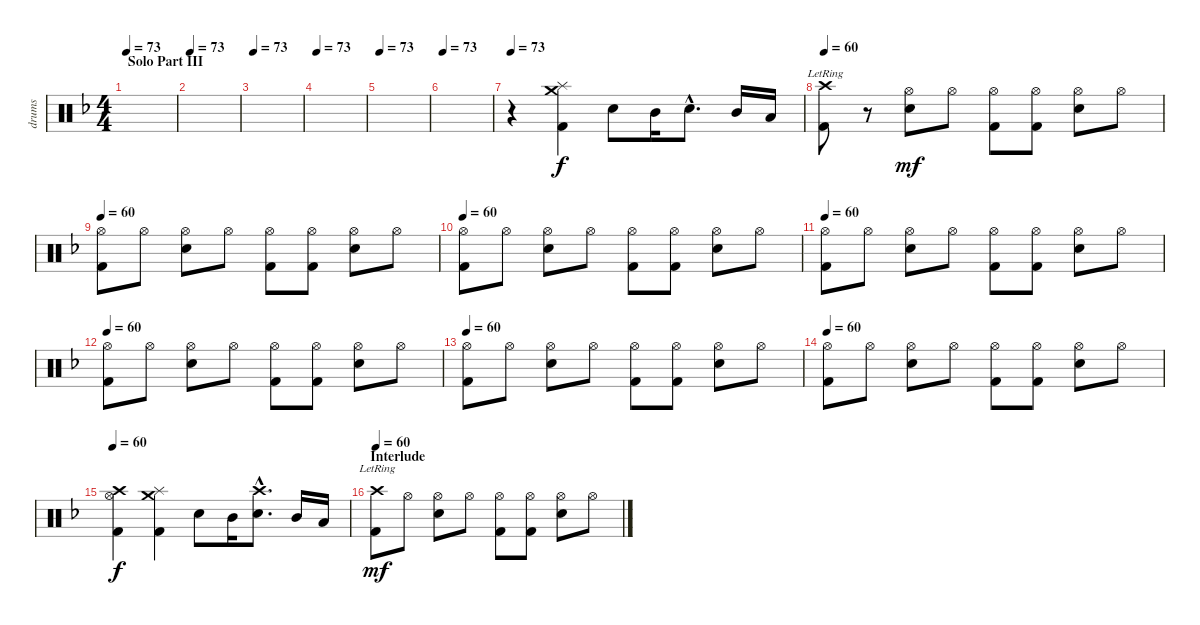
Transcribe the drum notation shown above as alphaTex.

\track ("drums" "drums") {instrument percussion}
\staff {score}
\articulation defaults
\ts (4 4)
\section ("" "Solo Part III")
\tempo 73
\clef neutral
\ks dminor
|
\tempo 73
|
\tempo 73
|
\tempo 73
|
\tempo 73
|
\tempo 73
|
\tempo 73
r.4 ("Splash (hit)" "Crash medium (hit)" "Kick (hit) 2").4 "Electric Snare (hit)".8 "Mid Tom (hit)".16 "Electric Snare (hit)"{hac}.8{d} "Mid Tom (hit)".16 "Low Tom (hit)".16 |
\tempo 60
("Crash high (hit)"{lr} "Kick (hit) 2").8 r.8 ("Hi-Hat (open)" "Electric Snare (hit)").8{dy mf} "Hi-Hat (open)".8 ("Hi-Hat (open)" "Kick (hit) 2").8 ("Hi-Hat (open)" "Kick (hit) 2").8 ("Hi-Hat (open)" "Electric Snare (hit)").8 "Hi-Hat (open)".8 |
\tempo 60
("Hi-Hat (open)" "Kick (hit) 2").8 "Hi-Hat (open)".8 ("Hi-Hat (open)" "Electric Snare (hit)").8 "Hi-Hat (open)".8 ("Hi-Hat (open)" "Kick (hit) 2").8 ("Hi-Hat (open)" "Kick (hit) 2").8 ("Hi-Hat (open)" "Electric Snare (hit)").8 "Hi-Hat (open)".8 |
\tempo 60
("Hi-Hat (open)" "Kick (hit) 2").8 "Hi-Hat (open)".8 ("Hi-Hat (open)" "Electric Snare (hit)").8 "Hi-Hat (open)".8 ("Hi-Hat (open)" "Kick (hit) 2").8 ("Hi-Hat (open)" "Kick (hit) 2").8 ("Hi-Hat (open)" "Electric Snare (hit)").8 "Hi-Hat (open)".8 |
\tempo 60
("Hi-Hat (open)" "Kick (hit) 2").8 "Hi-Hat (open)".8 ("Hi-Hat (open)" "Electric Snare (hit)").8 "Hi-Hat (open)".8 ("Hi-Hat (open)" "Kick (hit) 2").8 ("Hi-Hat (open)" "Kick (hit) 2").8 ("Hi-Hat (open)" "Electric Snare (hit)").8 "Hi-Hat (open)".8 |
\tempo 60
("Hi-Hat (open)" "Kick (hit) 2").8 "Hi-Hat (open)".8 ("Hi-Hat (open)" "Electric Snare (hit)").8 "Hi-Hat (open)".8 ("Hi-Hat (open)" "Kick (hit) 2").8 ("Hi-Hat (open)" "Kick (hit) 2").8 ("Hi-Hat (open)" "Electric Snare (hit)").8 "Hi-Hat (open)".8 |
\tempo 60
("Hi-Hat (open)" "Kick (hit) 2").8 "Hi-Hat (open)".8 ("Hi-Hat (open)" "Electric Snare (hit)").8 "Hi-Hat (open)".8 ("Hi-Hat (open)" "Kick (hit) 2").8 ("Hi-Hat (open)" "Kick (hit) 2").8 ("Hi-Hat (open)" "Electric Snare (hit)").8 "Hi-Hat (open)".8 |
\tempo 60
("Hi-Hat (open)" "Kick (hit) 2").8 "Hi-Hat (open)".8 ("Hi-Hat (open)" "Electric Snare (hit)").8 "Hi-Hat (open)".8 ("Hi-Hat (open)" "Kick (hit) 2").8 ("Hi-Hat (open)" "Kick (hit) 2").8 ("Hi-Hat (open)" "Electric Snare (hit)").8 "Hi-Hat (open)".8 |
\tempo 60
("Hi-Hat (open)" "Crash high (hit)" "Kick (hit) 2").4{dy f} ("Splash (hit)" "Crash medium (hit)" "Kick (hit) 2").4 "Electric Snare (hit)".8 "Mid Tom (hit)".16 ("Crash high (hit)"{hac} "Electric Snare (hit)"{hac}).8{d} "Mid Tom (hit)".16 "Low Tom (hit)".16 |
\section ("" "Interlude")
\tempo 60
("Crash high (hit)"{lr} "Kick (hit) 2").8{dy mf} "Hi-Hat (open)".8 ("Hi-Hat (open)" "Electric Snare (hit)").8 "Hi-Hat (open)".8 ("Hi-Hat (open)" "Kick (hit) 2").8 ("Hi-Hat (open)" "Kick (hit) 2").8 ("Hi-Hat (open)" "Electric Snare (hit)").8 "Hi-Hat (open)".8
